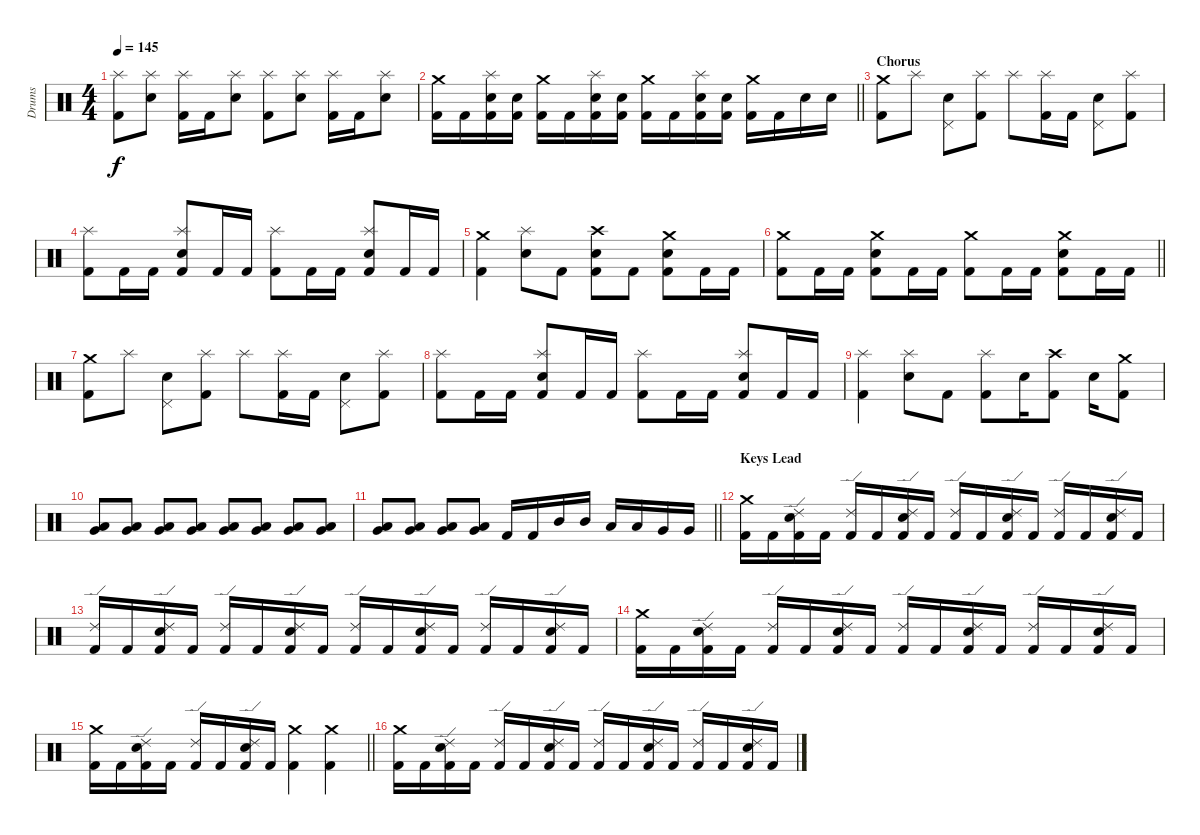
\track ("Drums" "Drums") {instrument percussion}
\staff {score}
\articulation defaults
\ts (4 4)
\tempo 145
\clef neutral
\ks c
("Kick (hit) 2" "Splash (hit)").8{dy f} ("Snare (hit) 2" "Splash (hit)").8 ("Kick (hit) 2" "Splash (hit)").16 "Kick (hit) 2".16 ("Snare (hit) 2" "Splash (hit)").8 ("Kick (hit) 2" "Splash (hit)").8 ("Snare (hit) 2" "Splash (hit)").8 ("Kick (hit) 2" "Splash (hit)").16 "Kick (hit) 2".16 ("Snare (hit) 2" "Splash (hit)").8 |
\barLineRight lightlight
("Kick (hit) 2" "Crash medium (hit)").16 "Kick (hit) 2".16 ("Kick (hit) 2" "Snare (hit) 2" "Splash (hit)").16 ("Kick (hit) 2" "Snare (hit) 2").16 ("Kick (hit) 2" "Crash medium (hit)").16 "Kick (hit) 2".16 ("Kick (hit) 2" "Snare (hit) 2" "Splash (hit)").16 ("Kick (hit) 2" "Snare (hit) 2").16 ("Kick (hit) 2" "Crash medium (hit)").16 "Kick (hit) 2".16 ("Kick (hit) 2" "Snare (hit) 2" "Splash (hit)").16 ("Kick (hit) 2" "Snare (hit) 2").16 ("Kick (hit) 2" "Crash medium (hit)").16 "Kick (hit) 2".16 "Snare (hit) 2".16 "Snare (hit) 2".16 |
\section ("" "Chorus")
("Kick (hit) 2" "Crash medium (hit)").8 "Splash (hit)".8 ("Snare (hit) 2" "Pedal Hi-Hat (hit)").8 ("Kick (hit) 2" "Splash (hit)").8 "Splash (hit)".8 ("Kick (hit) 2" "Splash (hit)").16 "Kick (hit) 2".16 ("Snare (hit) 2" "Pedal Hi-Hat (hit)").8 ("Kick (hit) 2" "Splash (hit)").8 |
("Kick (hit) 2" "Splash (hit)").8 "Kick (hit) 2".16 "Kick (hit) 2".16 ("Kick (hit) 2" "Snare (hit) 2" "Splash (hit)").8 "Kick (hit) 2".16 "Kick (hit) 2".16 ("Kick (hit) 2" "Splash (hit)").8 "Kick (hit) 2".16 "Kick (hit) 2".16 ("Kick (hit) 2" "Snare (hit) 2" "Splash (hit)").8 "Kick (hit) 2".16 "Kick (hit) 2".16 |
("Kick (hit) 2" "Crash medium (hit)").4 ("Snare (hit) 2" "Splash (hit)").8 "Kick (hit) 2".8 ("Kick (hit) 2" "Snare (hit) 2" "Crash high (hit)").8 "Kick (hit) 2".8 ("Kick (hit) 2" "Snare (hit) 2" "Crash medium (hit)").8 "Kick (hit) 2".16 "Kick (hit) 2".16 |
\barLineRight lightlight
("Kick (hit) 2" "Crash medium (hit)").8 "Kick (hit) 2".16 "Kick (hit) 2".16 ("Kick (hit) 2" "Snare (hit) 2" "Crash medium (hit)").8 "Kick (hit) 2".16 "Kick (hit) 2".16 ("Kick (hit) 2" "Crash medium (hit)").8 "Kick (hit) 2".16 "Kick (hit) 2".16 ("Kick (hit) 2" "Snare (hit) 2" "Crash medium (hit)").8 "Kick (hit) 2".16 "Kick (hit) 2".16 |
\section ("" "")
("Kick (hit) 2" "Crash medium (hit)").8 "Splash (hit)".8 ("Snare (hit) 2" "Pedal Hi-Hat (hit)").8 ("Kick (hit) 2" "Splash (hit)").8 "Splash (hit)".8 ("Kick (hit) 2" "Splash (hit)").16 "Kick (hit) 2".16 ("Snare (hit) 2" "Pedal Hi-Hat (hit)").8 ("Kick (hit) 2" "Splash (hit)").8 |
("Kick (hit) 2" "Splash (hit)").8 "Kick (hit) 2".16 "Kick (hit) 2".16 ("Kick (hit) 2" "Snare (hit) 2" "Splash (hit)").8 "Kick (hit) 2".16 "Kick (hit) 2".16 ("Kick (hit) 2" "Splash (hit)").8 "Kick (hit) 2".16 "Kick (hit) 2".16 ("Kick (hit) 2" "Snare (hit) 2" "Splash (hit)").8 "Kick (hit) 2".16 "Kick (hit) 2".16 |
("Kick (hit) 2" "Splash (hit)").4 ("Snare (hit) 2" "Splash (hit)").8 "Kick (hit) 2".8 ("Kick (hit) 2" "Splash (hit)").8 "Snare (hit) 2".16 ("Kick (hit) 2" "Crash high (hit)").8 "Snare (hit) 2".16 ("Kick (hit) 2" "Crash medium (hit)").8 |
("Low Floor Tom (hit)" "Very Low Tom (hit)").8 ("Low Floor Tom (hit)" "Very Low Tom (hit)").8 ("Low Floor Tom (hit)" "Very Low Tom (hit)").8 ("Low Floor Tom (hit)" "Very Low Tom (hit)").8 ("Low Floor Tom (hit)" "Very Low Tom (hit)").8 ("Low Floor Tom (hit)" "Very Low Tom (hit)").8 ("Low Floor Tom (hit)" "Very Low Tom (hit)").8 ("Low Floor Tom (hit)" "Very Low Tom (hit)").8 |
\barLineRight lightlight
("Low Floor Tom (hit)" "Very Low Tom (hit)").8 ("Low Floor Tom (hit)" "Very Low Tom (hit)").8 ("Low Floor Tom (hit)" "Very Low Tom (hit)").8 ("Low Floor Tom (hit)" "Very Low Tom (hit)").8 "Kick (hit) 2".16 "Kick (hit) 2".16 "Mid Tom (hit)".16 "Mid Tom (hit)".16 "Low Tom (hit)".16 "Low Tom (hit)".16 "Very Low Tom (hit)".16 "Very Low Tom (hit)".16 |
\section ("" "Keys Lead")
("Kick (hit) 2" "Crash medium (hit)").16 "Kick (hit) 2".16 ("Kick (hit) 2" "Snare (hit) 2" "Ride (edge) 2").16 "Kick (hit) 2".16 ("Kick (hit) 2" "Ride (edge) 2").16 "Kick (hit) 2".16 ("Kick (hit) 2" "Snare (hit) 2" "Ride (edge) 2").16 "Kick (hit) 2".16 ("Kick (hit) 2" "Ride (edge) 2").16 "Kick (hit) 2".16 ("Kick (hit) 2" "Snare (hit) 2" "Ride (edge) 2").16 "Kick (hit) 2".16 ("Kick (hit) 2" "Ride (edge) 2").16 "Kick (hit) 2".16 ("Kick (hit) 2" "Snare (hit) 2" "Ride (edge) 2").16 "Kick (hit) 2".16 |
("Kick (hit) 2" "Ride (edge) 2").16 "Kick (hit) 2".16 ("Kick (hit) 2" "Snare (hit) 2" "Ride (edge) 2").16 "Kick (hit) 2".16 ("Kick (hit) 2" "Ride (edge) 2").16 "Kick (hit) 2".16 ("Kick (hit) 2" "Snare (hit) 2" "Ride (edge) 2").16 "Kick (hit) 2".16 ("Kick (hit) 2" "Ride (edge) 2").16 "Kick (hit) 2".16 ("Kick (hit) 2" "Snare (hit) 2" "Ride (edge) 2").16 "Kick (hit) 2".16 ("Kick (hit) 2" "Ride (edge) 2").16 "Kick (hit) 2".16 ("Kick (hit) 2" "Snare (hit) 2" "Ride (edge) 2").16 "Kick (hit) 2".16 |
("Kick (hit) 2" "Crash medium (hit)").16 "Kick (hit) 2".16 ("Kick (hit) 2" "Snare (hit) 2" "Ride (edge) 2").16 "Kick (hit) 2".16 ("Kick (hit) 2" "Ride (edge) 2").16 "Kick (hit) 2".16 ("Kick (hit) 2" "Snare (hit) 2" "Ride (edge) 2").16 "Kick (hit) 2".16 ("Kick (hit) 2" "Ride (edge) 2").16 "Kick (hit) 2".16 ("Kick (hit) 2" "Snare (hit) 2" "Ride (edge) 2").16 "Kick (hit) 2".16 ("Kick (hit) 2" "Ride (edge) 2").16 "Kick (hit) 2".16 ("Kick (hit) 2" "Snare (hit) 2" "Ride (edge) 2").16 "Kick (hit) 2".16 |
\barLineRight lightlight
("Kick (hit) 2" "Crash medium (hit)").16 "Kick (hit) 2".16 ("Kick (hit) 2" "Snare (hit) 2" "Ride (edge) 2").16 "Kick (hit) 2".16 ("Kick (hit) 2" "Ride (edge) 2").16 "Kick (hit) 2".16 ("Kick (hit) 2" "Snare (hit) 2" "Ride (edge) 2").16 "Kick (hit) 2".16 ("Kick (hit) 2" "Crash medium (hit)").4 ("Kick (hit) 2" "Crash medium (hit)").4 |
\section ("" "")
("Kick (hit) 2" "Crash medium (hit)").16 "Kick (hit) 2".16 ("Kick (hit) 2" "Snare (hit) 2" "Ride (edge) 2").16 "Kick (hit) 2".16 ("Kick (hit) 2" "Ride (edge) 2").16 "Kick (hit) 2".16 ("Kick (hit) 2" "Snare (hit) 2" "Ride (edge) 2").16 "Kick (hit) 2".16 ("Kick (hit) 2" "Ride (edge) 2").16 "Kick (hit) 2".16 ("Kick (hit) 2" "Snare (hit) 2" "Ride (edge) 2").16 "Kick (hit) 2".16 ("Kick (hit) 2" "Ride (edge) 2").16 "Kick (hit) 2".16 ("Kick (hit) 2" "Snare (hit) 2" "Ride (edge) 2").16 "Kick (hit) 2".16
